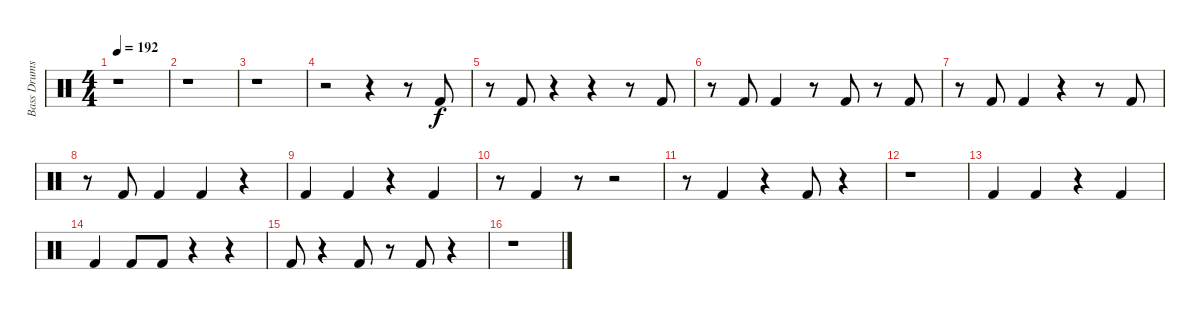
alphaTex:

\track ("Bass Drums" "Bass Drums") {instrument percussion}
\staff {score}
\articulation defaults
\ts (4 4)
\tempo 192
\clef neutral
\ks c
r.1{dy f} |
r.1 |
r.1 |
r.2 r.4 r.8 "Kick (hit) 2".8 |
r.8 "Kick (hit) 2".8 r.4 r.4 r.8 "Kick (hit) 2".8 |
r.8 "Kick (hit) 2".8 "Kick (hit) 2".4 r.8 "Kick (hit) 2".8 r.8 "Kick (hit) 2".8 |
r.8 "Kick (hit) 2".8 "Kick (hit) 2".4 r.4 r.8 "Kick (hit) 2".8 |
r.8 "Kick (hit) 2".8 "Kick (hit) 2".4 "Kick (hit) 2".4 r.4 |
"Kick (hit) 2".4 "Kick (hit) 2".4 r.4 "Kick (hit) 2".4 |
r.8 "Kick (hit) 2".4 r.8 r.2 |
r.8 "Kick (hit) 2".4 r.4 "Kick (hit) 2".8 r.4 |
r.1 |
"Kick (hit) 2".4 "Kick (hit) 2".4 r.4 "Kick (hit) 2".4 |
"Kick (hit) 2".4 "Kick (hit) 2".8 "Kick (hit) 2".8 r.4 r.4 |
"Kick (hit) 2".8 r.4 "Kick (hit) 2".8 r.8 "Kick (hit) 2".8 r.4 |
r.1
